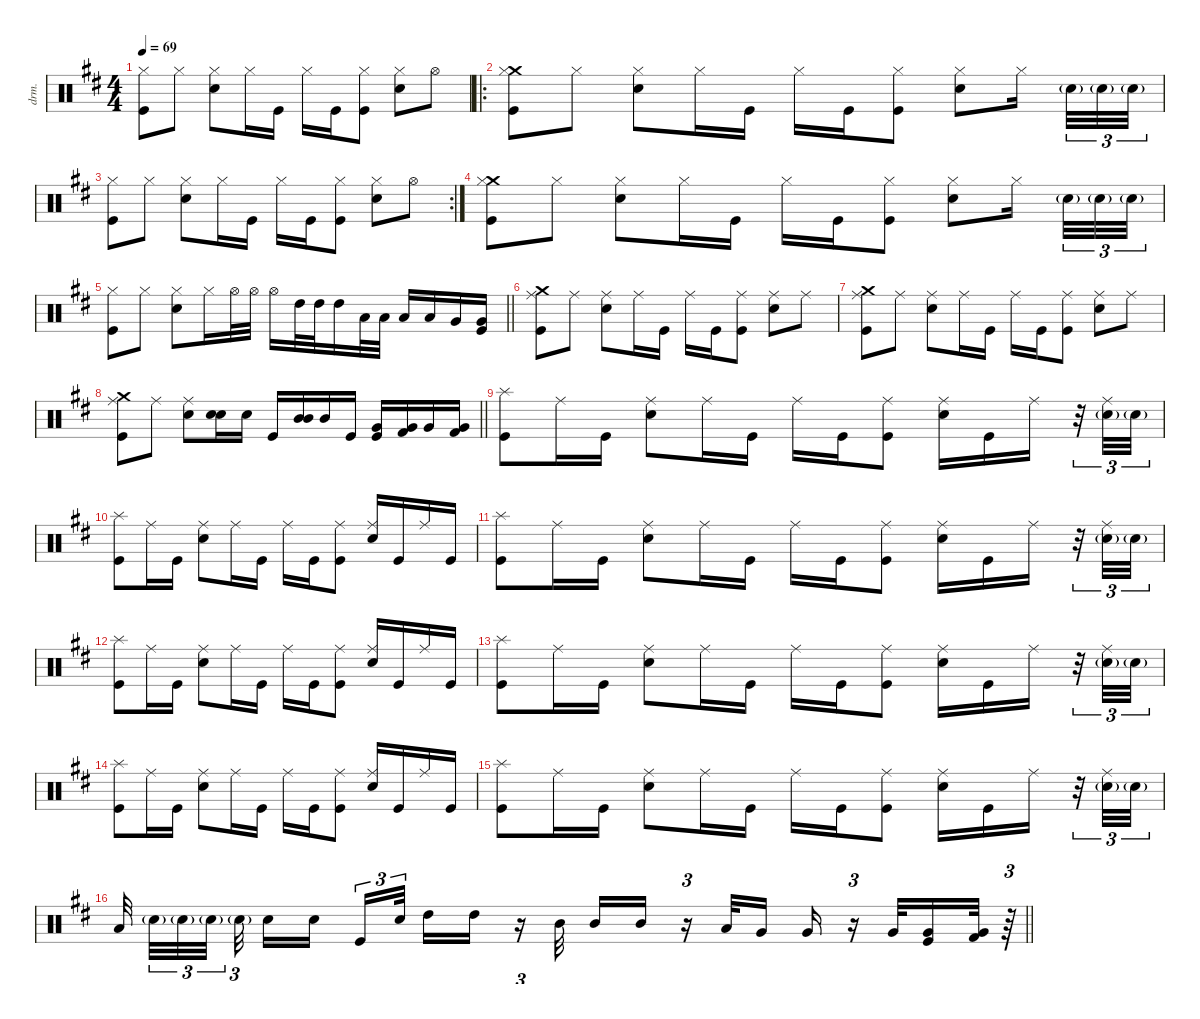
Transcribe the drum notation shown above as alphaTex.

\defaultSystemsLayout 4
\hideDynamics
\bracketExtendMode nobrackets
\otherSystemsTrackNameOrientation horizontal
\track ("Percussion" "drm.") {defaultSystemsLayout 4 instrument percussion}
\staff {score}
\articulation defaults
\ts (4 4)
\tempo 69
\clef neutral
\ks bminor
("Kick (hit)"{acc forcenatural} "Hi-Hat (closed)"{acc forcenatural}).8{dy f beam Down} "Hi-Hat (closed)"{acc forcenatural}.8{beam Down} ("Snare (hit) 2"{acc forcenatural} "Hi-Hat (closed)"{acc forcenatural}).8{beam Down} "Hi-Hat (closed)"{acc forcenatural}.16{beam Down} "Kick (hit)"{acc forcenatural}.16{beam Down} "Hi-Hat (closed)"{acc forcenatural}.16{beam Down} "Kick (hit)"{acc forcenatural}.16{beam Down} ("Kick (hit)"{acc forcenatural} "Hi-Hat (closed)"{acc forcenatural}).8{beam Down} ("Snare (hit) 2"{acc forcenatural} "Hi-Hat (closed)"{acc forcenatural}).8{beam Down} "Hi-Hat (open)"{acc forcenatural}.8{beam Down} |
\ro
("Crash medium (hit)"{acc forcenatural} "Kick (hit)"{acc forcenatural} "Hi-Hat (closed)"{acc forcenatural}).8{beam Down} "Hi-Hat (closed)"{acc forcenatural}.8{beam Down} ("Snare (hit) 2"{acc forcenatural} "Hi-Hat (closed)"{acc forcenatural}).8{beam Down} "Hi-Hat (closed)"{acc forcenatural}.16{beam Down} "Kick (hit)"{acc forcenatural}.16{beam Down} "Hi-Hat (closed)"{acc forcenatural}.16{beam Down} "Kick (hit)"{acc forcenatural}.16{beam Down} ("Kick (hit)"{acc forcenatural} "Hi-Hat (closed)"{acc forcenatural}).8{beam Down} ("Snare (hit) 2"{acc forcenatural} "Hi-Hat (closed)"{acc forcenatural}).8{beam Down} "Hi-Hat (closed)"{acc forcenatural}.16{beam Down} "Snare (hit) 2"{g acc forcenatural}.32{tu (3 2) dy mf beam Down} "Snare (hit) 2"{g acc forcenatural}.32{tu (3 2) dy mp beam Down} "Snare (hit) 2"{g acc forcenatural}.32{tu (3 2) dy mf beam Down} |
\rc 2
("Kick (hit)"{acc forcenatural} "Hi-Hat (closed)"{acc forcenatural}).8{dy f beam Down} "Hi-Hat (closed)"{acc forcenatural}.8{beam Down} ("Snare (hit) 2"{acc forcenatural} "Hi-Hat (closed)"{acc forcenatural}).8{beam Down} "Hi-Hat (closed)"{acc forcenatural}.16{beam Down} "Kick (hit)"{acc forcenatural}.16{beam Down} "Hi-Hat (closed)"{acc forcenatural}.16{beam Down} "Kick (hit)"{acc forcenatural}.16{beam Down} ("Kick (hit)"{acc forcenatural} "Hi-Hat (closed)"{acc forcenatural}).8{beam Down} ("Snare (hit) 2"{acc forcenatural} "Hi-Hat (closed)"{acc forcenatural}).8{beam Down} "Hi-Hat (open)"{acc forcenatural}.8{beam Down} |
("Crash medium (hit)"{acc forcenatural} "Kick (hit)"{acc forcenatural} "Hi-Hat (closed)"{acc forcenatural}).8{beam Down} "Hi-Hat (closed)"{acc forcenatural}.8{beam Down} ("Snare (hit) 2"{acc forcenatural} "Hi-Hat (closed)"{acc forcenatural}).8{beam Down} "Hi-Hat (closed)"{acc forcenatural}.16{beam Down} "Kick (hit)"{acc forcenatural}.16{beam Down} "Hi-Hat (closed)"{acc forcenatural}.16{beam Down} "Kick (hit)"{acc forcenatural}.16{beam Down} ("Kick (hit)"{acc forcenatural} "Hi-Hat (closed)"{acc forcenatural}).8{beam Down} ("Snare (hit) 2"{acc forcenatural} "Hi-Hat (closed)"{acc forcenatural}).8{beam Down} "Hi-Hat (closed)"{acc forcenatural}.16{beam Down} "Snare (hit) 2"{g acc forcenatural}.32{tu (3 2) dy mf beam Down} "Snare (hit) 2"{g acc forcenatural}.32{tu (3 2) dy mp beam Down} "Snare (hit) 2"{g acc forcenatural}.32{tu (3 2) dy mf beam Down} |
\barLineRight lightlight
("Kick (hit)"{acc forcenatural} "Hi-Hat (closed)"{acc forcenatural}).8{dy f beam Down} "Hi-Hat (closed)"{acc forcenatural}.8{beam Down} ("Snare (hit) 2"{acc forcenatural} "Hi-Hat (closed)"{acc forcenatural}).8{beam Down} "Hi-Hat (closed)"{acc forcenatural}.16{beam Down} "Hi-Hat (open)"{acc forcenatural}.32{dy mf beam Down} "Hi-Hat (open)"{acc forcenatural}.32{dy mp beam Down} "Hi-Hat (open)"{acc forcenatural}.16{dy f beam Down} "High Tom (hit)"{acc forcenatural}.32{beam Down} "High Tom (hit)"{acc forcenatural}.32{beam Down} "High Tom (hit)"{acc forcenatural}.16{beam Down} "Low Tom (hit)"{acc forcenatural}.32{beam Down} "Low Tom (hit)"{acc forcenatural}.32{beam Down} "Low Tom (hit)"{acc forcenatural}.16{beam Up} "Low Tom (hit)"{acc forcenatural}.16{beam Up} "Very Low Tom (hit)"{acc forcenatural}.16{beam Up} ("Very Low Tom (hit)"{acc forcenatural} "Kick (hit)"{acc forcenatural}).16{beam Up} |
("Crash medium (hit)"{acc forcenatural} "Kick (hit)"{acc forcenatural} "Ride (middle)"{acc forcenatural}).8{beam Down} "Ride (middle)"{acc forcenatural}.8{beam Down} ("Snare (hit) 2"{acc forcenatural} "Ride (middle)"{acc forcenatural}).8{beam Down} "Ride (middle)"{acc forcenatural}.16{beam Down} "Kick (hit)"{acc forcenatural}.16{beam Down} "Ride (middle)"{acc forcenatural}.16{beam Down} "Kick (hit)"{acc forcenatural}.16{beam Down} ("Kick (hit)"{acc forcenatural} "Ride (middle)"{acc forcenatural}).8{beam Down} ("Snare (hit) 2"{acc forcenatural} "Ride (middle)"{acc forcenatural}).8{beam Down} "Ride (middle)"{acc forcenatural}.8{beam Down} |
("Crash medium (hit)"{acc forcenatural} "Kick (hit)"{acc forcenatural} "Ride (middle)"{acc forcenatural}).8{beam Down} "Ride (middle)"{acc forcenatural}.8{beam Down} ("Snare (hit) 2"{acc forcenatural} "Ride (middle)"{acc forcenatural}).8{beam Down} "Ride (middle)"{acc forcenatural}.16{beam Down} "Kick (hit)"{acc forcenatural}.16{beam Down} "Ride (middle)"{acc forcenatural}.16{beam Down} "Kick (hit)"{acc forcenatural}.16{beam Down} ("Kick (hit)"{acc forcenatural} "Ride (middle)"{acc forcenatural}).8{beam Down} ("Snare (hit) 2"{acc forcenatural} "Ride (middle)"{acc forcenatural}).8{beam Down} "Ride (middle)"{acc forcenatural}.8{beam Down} |
\barLineRight lightlight
("Crash medium (hit)"{acc forcenatural} "Kick (hit)"{acc forcenatural} "Ride (middle)"{acc forcenatural}).8{beam Down} "Ride (middle)"{acc forcenatural}.8{beam Down} ("Snare (hit) 2"{acc forcenatural} "Ride (middle)"{acc forcenatural}).8{beam Down} ("Snare (hit) 2"{acc forcenatural} "Snare (hit) 2"{acc forcenatural}).16{beam Down} "Snare (hit) 2"{acc forcenatural}.16{beam Down} "Kick (hit)"{acc forcenatural}.16{beam Up} ("Mid Tom (hit)"{acc forcenatural} "Mid Tom (hit)"{acc forcenatural}).16{beam Up} "Mid Tom (hit)"{acc forcenatural}.16{beam Up} "Kick (hit)"{acc forcenatural}.16{beam Up} ("Very Low Tom (hit)"{acc forcenatural} "Kick (hit)"{acc forcenatural}).16{beam Up} ("Very Low Tom (hit)"{acc forcenatural} "Kick (hit) 2"{acc forcenatural}).16{beam Up} "Very Low Tom (hit)"{acc forcenatural}.16{dy fff beam Up} ("Very Low Tom (hit)"{acc forcenatural} "Kick (hit) 2"{acc forcenatural}).16{beam Up} |
("Splash (hit)"{acc forcenatural} "Kick (hit)"{acc forcenatural}).8{dy f beam Down} "Ride (middle)"{acc forcenatural}.16{beam Down} "Kick (hit)"{acc forcenatural}.16{beam Down} ("Snare (hit) 2"{acc forcenatural} "Ride (middle)"{acc forcenatural}).8{beam Down} "Ride (middle)"{acc forcenatural}.16{beam Down} "Kick (hit)"{acc forcenatural}.16{beam Down} "Ride (middle)"{acc forcenatural}.16{beam Down} "Kick (hit)"{acc forcenatural}.16{beam Down} ("Kick (hit)"{acc forcenatural} "Ride (middle)"{acc forcenatural}).8{beam Down} ("Snare (hit) 2"{acc forcenatural} "Ride (middle)"{acc forcenatural}).16{beam Down} "Kick (hit)"{acc forcenatural}.16{beam Down} "Ride (middle)"{acc forcenatural}.16{beam Down} r.32{tu (3 2) beam Down} ("Snare (hit) 2"{g acc forcenatural} "Ride (middle)"{acc forcenatural}).32{tu (3 2) beam Down} "Snare (hit) 2"{g acc forcenatural}.32{tu (3 2) dy ff beam Down} |
("Splash (hit)"{acc forcenatural} "Kick (hit)"{acc forcenatural}).8{dy f beam Down} "Ride (middle)"{acc forcenatural}.16{beam Down} "Kick (hit)"{acc forcenatural}.16{beam Down} ("Snare (hit) 2"{acc forcenatural} "Ride (middle)"{acc forcenatural}).8{beam Down} "Ride (middle)"{acc forcenatural}.16{beam Down} "Kick (hit)"{acc forcenatural}.16{beam Down} "Ride (middle)"{acc forcenatural}.16{beam Down} "Kick (hit)"{acc forcenatural}.16{beam Down} ("Kick (hit)"{acc forcenatural} "Ride (middle)"{acc forcenatural}).8{beam Down} ("Snare (hit) 2"{acc forcenatural} "Ride (middle)"{acc forcenatural}).16{beam Up} "Kick (hit)"{acc forcenatural}.16{beam Up} "Ride (middle)"{acc forcenatural}.16{beam Up} "Kick (hit)"{acc forcenatural}.16{beam Up} |
("Splash (hit)"{acc forcenatural} "Kick (hit)"{acc forcenatural}).8{beam Down} "Ride (middle)"{acc forcenatural}.16{beam Down} "Kick (hit)"{acc forcenatural}.16{beam Down} ("Snare (hit) 2"{acc forcenatural} "Ride (middle)"{acc forcenatural}).8{beam Down} "Ride (middle)"{acc forcenatural}.16{beam Down} "Kick (hit)"{acc forcenatural}.16{beam Down} "Ride (middle)"{acc forcenatural}.16{beam Down} "Kick (hit)"{acc forcenatural}.16{beam Down} ("Kick (hit)"{acc forcenatural} "Ride (middle)"{acc forcenatural}).8{beam Down} ("Snare (hit) 2"{acc forcenatural} "Ride (middle)"{acc forcenatural}).16{beam Down} "Kick (hit)"{acc forcenatural}.16{beam Down} "Ride (middle)"{acc forcenatural}.16{beam Down} r.32{tu (3 2) beam Down} ("Snare (hit) 2"{g acc forcenatural} "Ride (middle)"{acc forcenatural}).32{tu (3 2) beam Down} "Snare (hit) 2"{g acc forcenatural}.32{tu (3 2) dy ff beam Down} |
("Splash (hit)"{acc forcenatural} "Kick (hit)"{acc forcenatural}).8{dy f beam Down} "Ride (middle)"{acc forcenatural}.16{beam Down} "Kick (hit)"{acc forcenatural}.16{beam Down} ("Snare (hit) 2"{acc forcenatural} "Ride (middle)"{acc forcenatural}).8{beam Down} "Ride (middle)"{acc forcenatural}.16{beam Down} "Kick (hit)"{acc forcenatural}.16{beam Down} "Ride (middle)"{acc forcenatural}.16{beam Down} "Kick (hit)"{acc forcenatural}.16{beam Down} ("Kick (hit)"{acc forcenatural} "Ride (middle)"{acc forcenatural}).8{beam Down} ("Snare (hit) 2"{acc forcenatural} "Ride (middle)"{acc forcenatural}).16{beam Up} "Kick (hit)"{acc forcenatural}.16{beam Up} "Ride (middle)"{acc forcenatural}.16{beam Up} "Kick (hit)"{acc forcenatural}.16{beam Up} |
("Splash (hit)"{acc forcenatural} "Kick (hit)"{acc forcenatural}).8{beam Down} "Ride (middle)"{acc forcenatural}.16{beam Down} "Kick (hit)"{acc forcenatural}.16{beam Down} ("Snare (hit) 2"{acc forcenatural} "Ride (middle)"{acc forcenatural}).8{beam Down} "Ride (middle)"{acc forcenatural}.16{beam Down} "Kick (hit)"{acc forcenatural}.16{beam Down} "Ride (middle)"{acc forcenatural}.16{beam Down} "Kick (hit)"{acc forcenatural}.16{beam Down} ("Kick (hit)"{acc forcenatural} "Ride (middle)"{acc forcenatural}).8{beam Down} ("Snare (hit) 2"{acc forcenatural} "Ride (middle)"{acc forcenatural}).16{beam Down} "Kick (hit)"{acc forcenatural}.16{beam Down} "Ride (middle)"{acc forcenatural}.16{beam Down} r.32{tu (3 2) beam Down} ("Snare (hit) 2"{g acc forcenatural} "Ride (middle)"{acc forcenatural}).32{tu (3 2) beam Down} "Snare (hit) 2"{g acc forcenatural}.32{tu (3 2) dy ff beam Down} |
("Splash (hit)"{acc forcenatural} "Kick (hit)"{acc forcenatural}).8{dy f beam Down} "Ride (middle)"{acc forcenatural}.16{beam Down} "Kick (hit)"{acc forcenatural}.16{beam Down} ("Snare (hit) 2"{acc forcenatural} "Ride (middle)"{acc forcenatural}).8{beam Down} "Ride (middle)"{acc forcenatural}.16{beam Down} "Kick (hit)"{acc forcenatural}.16{beam Down} "Ride (middle)"{acc forcenatural}.16{beam Down} "Kick (hit)"{acc forcenatural}.16{beam Down} ("Kick (hit)"{acc forcenatural} "Ride (middle)"{acc forcenatural}).8{beam Down} ("Snare (hit) 2"{acc forcenatural} "Ride (middle)"{acc forcenatural}).16{beam Up} "Kick (hit)"{acc forcenatural}.16{beam Up} "Ride (middle)"{acc forcenatural}.16{beam Up} "Kick (hit)"{acc forcenatural}.16{beam Up} |
("Splash (hit)"{acc forcenatural} "Kick (hit)"{acc forcenatural}).8{beam Down} "Ride (middle)"{acc forcenatural}.16{beam Down} "Kick (hit)"{acc forcenatural}.16{beam Down} ("Snare (hit) 2"{acc forcenatural} "Ride (middle)"{acc forcenatural}).8{beam Down} "Ride (middle)"{acc forcenatural}.16{beam Down} "Kick (hit)"{acc forcenatural}.16{beam Down} "Ride (middle)"{acc forcenatural}.16{beam Down} "Kick (hit)"{acc forcenatural}.16{beam Down} ("Kick (hit)"{acc forcenatural} "Ride (middle)"{acc forcenatural}).8{beam Down} ("Snare (hit) 2"{acc forcenatural} "Ride (middle)"{acc forcenatural}).16{beam Down} "Kick (hit)"{acc forcenatural}.16{beam Down} "Ride (middle)"{acc forcenatural}.16{beam Down} r.32{tu (3 2) beam Down} ("Snare (hit) 2"{g acc forcenatural} "Ride (middle)"{acc forcenatural}).32{tu (3 2) beam Down} "Snare (hit) 2"{g acc forcenatural}.32{tu (3 2) dy ff beam Down} |
\barLineRight lightlight "Low Tom (hit)"{acc forcenatural}.32{dy fff beam Up} "Snare (hit) 2"{g acc forcenatural}.32{tu (3 2) dy ff beam Down} "Snare (hit) 2"{g acc forcenatural}.32{tu (3 2) dy mf beam Down} "Snare (hit) 2"{g acc forcenatural}.32{tu (3 2) beam Down} "Snare (hit) 2"{g acc forcenatural}.32{tu (3 2) dy ff beam Down} "Snare (hit) 2"{acc forcenatural}.16{beam Down} "Snare (hit) 2"{acc forcenatural}.16{beam Down} "Kick (hit)"{acc forcenatural}.16{tu (3 2) dy f beam Up} "Snare (hit) 2"{acc forcenatural}.32{tu (3 2) beam Up} "High Tom (hit)"{acc forcenatural}.16{dy fff beam Down} "High Tom (hit)"{acc forcenatural}.16{beam Down}
r.16{tu (3 2) beam Down} "Mid Tom (hit)"{acc forcenatural}.32{dy f beam Down} "Mid Tom (hit)"{acc forcenatural}.16{beam Up} "Mid Tom (hit)"{acc forcenatural}.16{beam Up} r.16{tu (3 2) beam Up} "Low Tom (hit)"{acc forcenatural}.32{beam Up} "Very Low Tom (hit)"{acc forcenatural}.16{beam Up} "Very Low Tom (hit)"{acc forcenatural}.16{beam Up} r.16{tu (3 2) beam Up} "Very Low Tom (hit)"{acc forcenatural}.32{beam Up} ("Very Low Tom (hit)"{acc forcenatural} "Kick (hit)"{acc forcenatural}).16{dy fff beam Up} ("Very Low Tom (hit)"{acc forcenatural} "Kick (hit) 2"{acc forcenatural}).32{beam Up} r.64{tu (3 2) beam Up}
